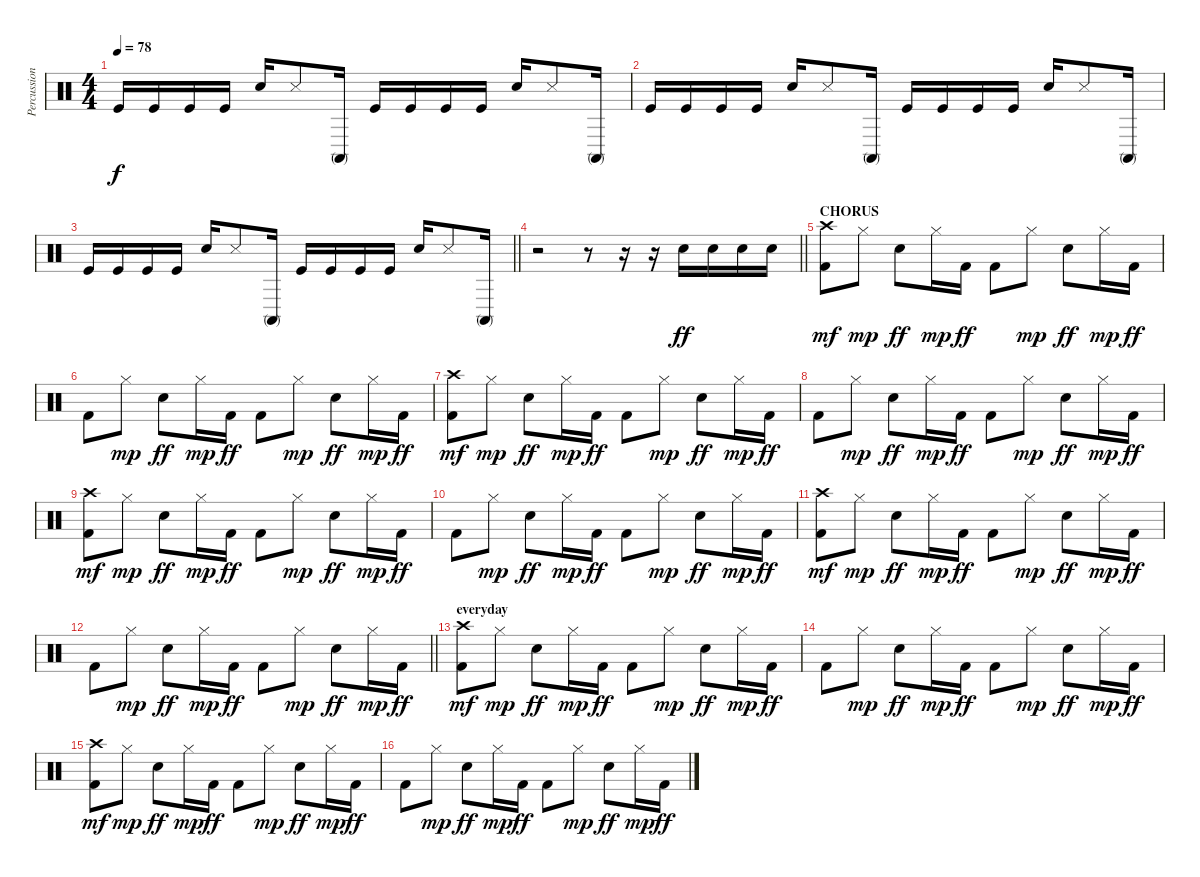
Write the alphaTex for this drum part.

\track ("Percussion" "Percussion") {instrument percussion}
\staff {score}
\articulation defaults
\ts (4 4)
\tempo 78
\clef neutral
\ks c "Kick (hit)".16{dy f} "Kick (hit)".16 "Kick (hit)".16 "Kick (hit)".16 "Electric Snare (hit)".16 "Snare (side stick) 3".8 "Conga high (mute)".16 "Kick (hit)".16 "Kick (hit)".16 "Kick (hit)".16 "Kick (hit)".16 "Electric Snare (hit)".16 "Snare (side stick) 3".8 "Conga high (mute)".16
|
"Kick (hit)".16 "Kick (hit)".16 "Kick (hit)".16 "Kick (hit)".16 "Electric Snare (hit)".16 "Snare (side stick) 3".8 "Conga high (mute)".16 "Kick (hit)".16 "Kick (hit)".16 "Kick (hit)".16 "Kick (hit)".16 "Electric Snare (hit)".16 "Snare (side stick) 3".8 "Conga high (mute)".16 |
\barLineRight lightlight "Kick (hit)".16 "Kick (hit)".16 "Kick (hit)".16 "Kick (hit)".16 "Electric Snare (hit)".16 "Snare (side stick) 3".8 "Conga high (mute)".16 "Kick (hit)".16 "Kick (hit)".16 "Kick (hit)".16 "Kick (hit)".16 "Electric Snare (hit)".16 "Snare (side stick) 3".8 "Conga high (mute)".16
|
\barLineRight lightlight
r.2 r.8 r.16 r.16 "Electric Snare (hit)".16{dy ff} "Electric Snare (hit)".16 "Electric Snare (hit)".16 "Electric Snare (hit)".16 |
\section ("" "CHORUS")
("Kick (hit) 2" "Crash high (hit)").8{dy mf} "Hi-Hat (closed)".8{dy mp} "Snare (hit) 2".8{dy ff} "Hi-Hat (closed)".16{dy mp} "Kick (hit) 2".16{dy ff} "Kick (hit) 2".8 "Hi-Hat (closed)".8{dy mp} "Snare (hit) 2".8{dy ff} "Hi-Hat (closed)".16{dy mp} "Kick (hit) 2".16{dy ff} |
"Kick (hit) 2".8 "Hi-Hat (closed)".8{dy mp} "Snare (hit) 2".8{dy ff} "Hi-Hat (closed)".16{dy mp} "Kick (hit) 2".16{dy ff} "Kick (hit) 2".8 "Hi-Hat (closed)".8{dy mp} "Snare (hit) 2".8{dy ff} "Hi-Hat (closed)".16{dy mp} "Kick (hit) 2".16{dy ff} |
("Kick (hit) 2" "Crash high (hit)").8{dy mf} "Hi-Hat (closed)".8{dy mp} "Snare (hit) 2".8{dy ff} "Hi-Hat (closed)".16{dy mp} "Kick (hit) 2".16{dy ff} "Kick (hit) 2".8 "Hi-Hat (closed)".8{dy mp} "Snare (hit) 2".8{dy ff} "Hi-Hat (closed)".16{dy mp} "Kick (hit) 2".16{dy ff} |
"Kick (hit) 2".8 "Hi-Hat (closed)".8{dy mp} "Snare (hit) 2".8{dy ff} "Hi-Hat (closed)".16{dy mp} "Kick (hit) 2".16{dy ff} "Kick (hit) 2".8 "Hi-Hat (closed)".8{dy mp} "Snare (hit) 2".8{dy ff} "Hi-Hat (closed)".16{dy mp} "Kick (hit) 2".16{dy ff} |
("Kick (hit) 2" "Crash high (hit)").8{dy mf} "Hi-Hat (closed)".8{dy mp} "Snare (hit) 2".8{dy ff} "Hi-Hat (closed)".16{dy mp} "Kick (hit) 2".16{dy ff} "Kick (hit) 2".8 "Hi-Hat (closed)".8{dy mp} "Snare (hit) 2".8{dy ff} "Hi-Hat (closed)".16{dy mp} "Kick (hit) 2".16{dy ff} |
"Kick (hit) 2".8 "Hi-Hat (closed)".8{dy mp} "Snare (hit) 2".8{dy ff} "Hi-Hat (closed)".16{dy mp} "Kick (hit) 2".16{dy ff} "Kick (hit) 2".8 "Hi-Hat (closed)".8{dy mp} "Snare (hit) 2".8{dy ff} "Hi-Hat (closed)".16{dy mp} "Kick (hit) 2".16{dy ff} |
("Kick (hit) 2" "Crash high (hit)").8{dy mf} "Hi-Hat (closed)".8{dy mp} "Snare (hit) 2".8{dy ff} "Hi-Hat (closed)".16{dy mp} "Kick (hit) 2".16{dy ff} "Kick (hit) 2".8 "Hi-Hat (closed)".8{dy mp} "Snare (hit) 2".8{dy ff} "Hi-Hat (closed)".16{dy mp} "Kick (hit) 2".16{dy ff} |
\barLineRight lightlight "Kick (hit) 2".8 "Hi-Hat (closed)".8{dy mp} "Snare (hit) 2".8{dy ff} "Hi-Hat (closed)".16{dy mp} "Kick (hit) 2".16{dy ff} "Kick (hit) 2".8 "Hi-Hat (closed)".8{dy mp} "Snare (hit) 2".8{dy ff} "Hi-Hat (closed)".16{dy mp} "Kick (hit) 2".16{dy ff}
|
\section ("" "everyday")
("Kick (hit) 2" "Crash high (hit)").8{dy mf} "Hi-Hat (closed)".8{dy mp} "Snare (hit) 2".8{dy ff} "Hi-Hat (closed)".16{dy mp} "Kick (hit) 2".16{dy ff} "Kick (hit) 2".8 "Hi-Hat (closed)".8{dy mp} "Snare (hit) 2".8{dy ff} "Hi-Hat (closed)".16{dy mp} "Kick (hit) 2".16{dy ff} |
"Kick (hit) 2".8 "Hi-Hat (closed)".8{dy mp} "Snare (hit) 2".8{dy ff} "Hi-Hat (closed)".16{dy mp} "Kick (hit) 2".16{dy ff} "Kick (hit) 2".8 "Hi-Hat (closed)".8{dy mp} "Snare (hit) 2".8{dy ff} "Hi-Hat (closed)".16{dy mp} "Kick (hit) 2".16{dy ff} |
("Kick (hit) 2" "Crash high (hit)").8{dy mf} "Hi-Hat (closed)".8{dy mp} "Snare (hit) 2".8{dy ff} "Hi-Hat (closed)".16{dy mp} "Kick (hit) 2".16{dy ff} "Kick (hit) 2".8 "Hi-Hat (closed)".8{dy mp} "Snare (hit) 2".8{dy ff} "Hi-Hat (closed)".16{dy mp} "Kick (hit) 2".16{dy ff} |
"Kick (hit) 2".8 "Hi-Hat (closed)".8{dy mp} "Snare (hit) 2".8{dy ff} "Hi-Hat (closed)".16{dy mp} "Kick (hit) 2".16{dy ff} "Kick (hit) 2".8 "Hi-Hat (closed)".8{dy mp} "Snare (hit) 2".8{dy ff} "Hi-Hat (closed)".16{dy mp} "Kick (hit) 2".16{dy ff}
